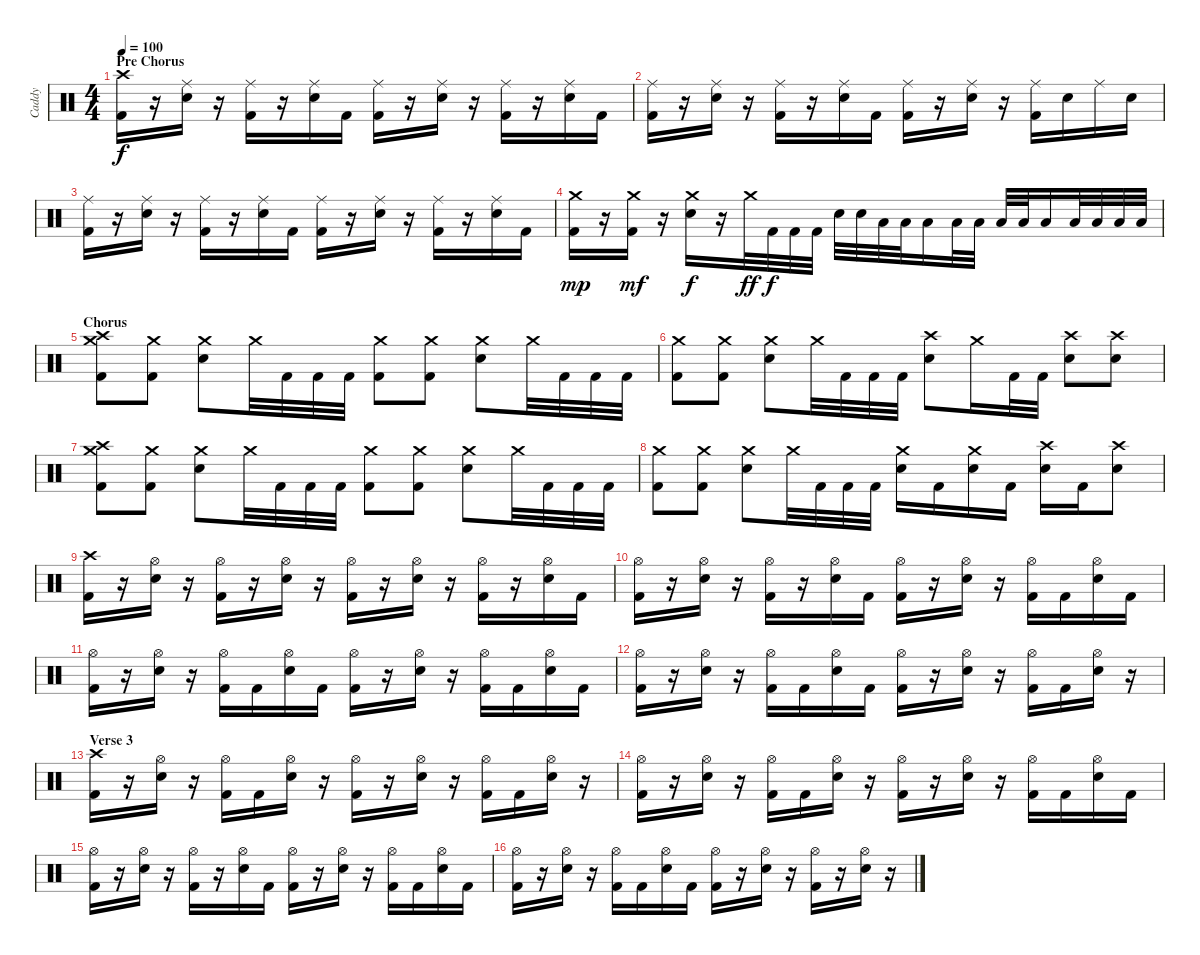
\track ("Caddy" "Caddy") {instrument percussion}
\staff {score}
\articulation defaults
\ts (4 4)
\section ("" "Pre Chorus")
\tempo 100
\clef neutral
\ks c
("Crash high (hit)" "Kick (hit) 2").16{dy f} r.16 ("Ride (middle)" "Electric Snare (hit)").16 r.16 ("Ride (middle)" "Kick (hit) 2").16 r.16 ("Ride (middle)" "Electric Snare (hit)").16 "Kick (hit) 2".16 ("Ride (middle)" "Kick (hit) 2").16 r.16 ("Ride (middle)" "Electric Snare (hit)").16 r.16 ("Ride (middle)" "Kick (hit) 2").16 r.16 ("Ride (middle)" "Electric Snare (hit)").16 "Kick (hit) 2".16 |
("Ride (middle)" "Kick (hit) 2").16 r.16 ("Ride (middle)" "Electric Snare (hit)").16 r.16 ("Ride (middle)" "Kick (hit) 2").16 r.16 ("Ride (middle)" "Electric Snare (hit)").16 "Kick (hit) 2".16 ("Ride (middle)" "Kick (hit) 2").16 r.16 ("Ride (middle)" "Electric Snare (hit)").16 r.16 ("Ride (middle)" "Kick (hit) 2").16 "Electric Snare (hit)".16 "Ride (middle)".16 "Electric Snare (hit)".16 |
("Ride (middle)" "Kick (hit) 2").16 r.16 ("Ride (middle)" "Electric Snare (hit)").16 r.16 ("Ride (middle)" "Kick (hit) 2").16 r.16 ("Ride (middle)" "Electric Snare (hit)").16 "Kick (hit) 2".16 ("Ride (middle)" "Kick (hit) 2").16 r.16 ("Ride (middle)" "Electric Snare (hit)").16 r.16 ("Ride (middle)" "Kick (hit) 2").16 r.16 ("Ride (middle)" "Electric Snare (hit)").16 "Kick (hit) 2".16 |
("Crash medium (hit)" "Kick (hit) 2").16{dy mp} r.16 ("Crash medium (hit)" "Kick (hit) 2").16{dy mf} r.16 ("Crash medium (hit)" "Electric Snare (hit)").16{dy f} r.16 "Crash medium (hit)".32{dy ff} "Kick (hit) 2".32{dy f} "Kick (hit) 2".32 "Kick (hit) 2".32 "Electric Snare (hit)".32 "Electric Snare (hit)".32 "Low Tom (hit)".32 "Low Tom (hit)".32 "Low Tom (hit)".16 "Low Floor Tom (hit)".32 "Low Floor Tom (hit)".32 "Low Tom (hit)".32 "Low Tom (hit)".32 "Low Tom (hit)".16 "Low Floor Tom (hit)".32 "Low Floor Tom (hit)".32 "Low Floor Tom (hit)".32 "Low Floor Tom (hit)".32 |
\section ("" "Chorus")
("Crash medium (hit)" "Crash high (hit)" "Kick (hit) 2").8 ("Crash medium (hit)" "Kick (hit) 2").8 ("Crash medium (hit)" "Electric Snare (hit)").8 "Crash medium (hit)".32 "Kick (hit) 2".32 "Kick (hit) 2".32 "Kick (hit) 2".32 ("Crash medium (hit)" "Kick (hit) 2").8 ("Crash medium (hit)" "Kick (hit) 2").8 ("Crash medium (hit)" "Electric Snare (hit)").8 "Crash medium (hit)".32 "Kick (hit) 2".32 "Kick (hit) 2".32 "Kick (hit) 2".32 |
("Crash medium (hit)" "Kick (hit) 2").8 ("Crash medium (hit)" "Kick (hit) 2").8 ("Crash medium (hit)" "Electric Snare (hit)").8 "Crash medium (hit)".32 "Kick (hit) 2".32 "Kick (hit) 2".32 "Kick (hit) 2".32 ("Crash high (hit)" "Electric Snare (hit)").8 "Crash medium (hit)".16 "Kick (hit) 2".32 "Kick (hit) 2".32 ("Crash high (hit)" "Electric Snare (hit)").8 ("Crash high (hit)" "Electric Snare (hit)").8 |
("Crash medium (hit)" "Crash high (hit)" "Kick (hit) 2").8 ("Crash medium (hit)" "Kick (hit) 2").8 ("Crash medium (hit)" "Electric Snare (hit)").8 "Crash medium (hit)".32 "Kick (hit) 2".32 "Kick (hit) 2".32 "Kick (hit) 2".32 ("Crash medium (hit)" "Kick (hit) 2").8 ("Crash medium (hit)" "Kick (hit) 2").8 ("Crash medium (hit)" "Electric Snare (hit)").8 "Crash medium (hit)".32 "Kick (hit) 2".32 "Kick (hit) 2".32 "Kick (hit) 2".32 |
("Crash medium (hit)" "Kick (hit) 2").8 ("Crash medium (hit)" "Kick (hit) 2").8 ("Crash medium (hit)" "Electric Snare (hit)").8 "Crash medium (hit)".32 "Kick (hit) 2".32 "Kick (hit) 2".32 "Kick (hit) 2".32 ("Crash medium (hit)" "Electric Snare (hit)").16 "Kick (hit) 2".16 ("Crash medium (hit)" "Electric Snare (hit)").16 "Kick (hit) 2".16 ("Crash high (hit)" "Electric Snare (hit)").16 "Kick (hit) 2".16 ("Crash high (hit)" "Electric Snare (hit)").8 |
("Crash high (hit)" "Kick (hit) 2").16 r.16 ("Hi-Hat (open)" "Electric Snare (hit)").16 r.16 ("Hi-Hat (open)" "Kick (hit) 2").16 r.16 ("Hi-Hat (open)" "Electric Snare (hit)").16 r.16 ("Hi-Hat (open)" "Kick (hit) 2").16 r.16 ("Hi-Hat (open)" "Electric Snare (hit)").16 r.16 ("Hi-Hat (open)" "Kick (hit) 2").16 r.16 ("Hi-Hat (open)" "Electric Snare (hit)").16 "Kick (hit) 2".16 |
("Hi-Hat (open)" "Kick (hit) 2").16 r.16 ("Hi-Hat (open)" "Electric Snare (hit)").16 r.16 ("Hi-Hat (open)" "Kick (hit) 2").16 r.16 ("Hi-Hat (open)" "Electric Snare (hit)").16 "Kick (hit) 2".16 ("Hi-Hat (open)" "Kick (hit) 2").16 r.16 ("Hi-Hat (open)" "Electric Snare (hit)").16 r.16 ("Hi-Hat (open)" "Kick (hit) 2").16 "Kick (hit) 2".16 ("Hi-Hat (open)" "Electric Snare (hit)").16 "Kick (hit) 2".16 |
("Hi-Hat (open)" "Kick (hit) 2").16 r.16 ("Hi-Hat (open)" "Electric Snare (hit)").16 r.16 ("Hi-Hat (open)" "Kick (hit) 2").16 "Kick (hit) 2".16 ("Hi-Hat (open)" "Electric Snare (hit)").16 "Kick (hit) 2".16 ("Hi-Hat (open)" "Kick (hit) 2").16 r.16 ("Hi-Hat (open)" "Electric Snare (hit)").16 r.16 ("Hi-Hat (open)" "Kick (hit) 2").16 "Kick (hit) 2".16 ("Hi-Hat (open)" "Electric Snare (hit)").16 "Kick (hit) 2".16 |
("Hi-Hat (open)" "Kick (hit) 2").16 r.16 ("Hi-Hat (open)" "Electric Snare (hit)").16 r.16 ("Hi-Hat (open)" "Kick (hit) 2").16 "Kick (hit) 2".16 ("Hi-Hat (open)" "Electric Snare (hit)").16 "Kick (hit) 2".16 ("Hi-Hat (open)" "Kick (hit) 2").16 r.16 ("Hi-Hat (open)" "Electric Snare (hit)").16 r.16 ("Hi-Hat (open)" "Kick (hit) 2").16 "Kick (hit) 2".16 ("Hi-Hat (open)" "Electric Snare (hit)").16 r.16 |
\section ("" "Verse 3")
("Crash high (hit)" "Kick (hit) 2").16 r.16 ("Hi-Hat (open)" "Electric Snare (hit)").16 r.16 ("Hi-Hat (open)" "Kick (hit) 2").16 "Kick (hit) 2".16 ("Hi-Hat (open)" "Electric Snare (hit)").16 r.16 ("Hi-Hat (open)" "Kick (hit) 2").16 r.16 ("Hi-Hat (open)" "Electric Snare (hit)").16 r.16 ("Hi-Hat (open)" "Kick (hit) 2").16 "Kick (hit) 2".16 ("Hi-Hat (open)" "Electric Snare (hit)").16 r.16 |
("Hi-Hat (open)" "Kick (hit) 2").16 r.16 ("Hi-Hat (open)" "Electric Snare (hit)").16 r.16 ("Hi-Hat (open)" "Kick (hit) 2").16 "Kick (hit) 2".16 ("Hi-Hat (open)" "Electric Snare (hit)").16 r.16 ("Hi-Hat (open)" "Kick (hit) 2").16 r.16 ("Hi-Hat (open)" "Electric Snare (hit)").16 r.16 ("Hi-Hat (open)" "Kick (hit) 2").16 "Kick (hit) 2".16 ("Hi-Hat (open)" "Electric Snare (hit)").16 "Kick (hit) 2".16 |
("Hi-Hat (open)" "Kick (hit) 2").16 r.16 ("Hi-Hat (open)" "Electric Snare (hit)").16 r.16 ("Hi-Hat (open)" "Kick (hit) 2").16 r.16 ("Hi-Hat (open)" "Electric Snare (hit)").16 "Kick (hit) 2".16 ("Hi-Hat (open)" "Kick (hit) 2").16 r.16 ("Hi-Hat (open)" "Electric Snare (hit)").16 r.16 ("Hi-Hat (open)" "Kick (hit) 2").16 "Kick (hit) 2".16 ("Hi-Hat (open)" "Electric Snare (hit)").16 "Kick (hit) 2".16 |
("Hi-Hat (open)" "Kick (hit) 2").16 r.16 ("Hi-Hat (open)" "Electric Snare (hit)").16 r.16 ("Hi-Hat (open)" "Kick (hit) 2").16 "Kick (hit) 2".16 ("Hi-Hat (open)" "Electric Snare (hit)").16 "Kick (hit) 2".16 ("Hi-Hat (open)" "Kick (hit) 2").16 r.16 ("Hi-Hat (open)" "Electric Snare (hit)").16 r.16 ("Hi-Hat (open)" "Kick (hit) 2").16 r.16 ("Hi-Hat (open)" "Electric Snare (hit)").16 r.16
